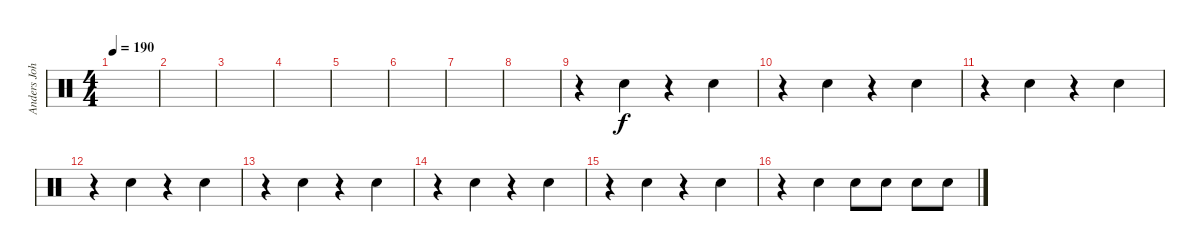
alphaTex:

\track ("Anders Johansson Drums" "Anders Joh") {instrument percussion}
\staff {score}
\articulation defaults
\ts (4 4)
\tempo 190
\clef neutral
\ks c
|
|
|
|
|
|
|
|
r.4 "Snare (hit) 2".4 r.4 "Snare (hit) 2".4 |
r.4 "Snare (hit) 2".4 r.4 "Snare (hit) 2".4 |
r.4 "Snare (hit) 2".4 r.4 "Snare (hit) 2".4 |
r.4 "Snare (hit) 2".4 r.4 "Snare (hit) 2".4 |
r.4 "Snare (hit) 2".4 r.4 "Snare (hit) 2".4 |
r.4 "Snare (hit) 2".4 r.4 "Snare (hit) 2".4 |
r.4 "Snare (hit) 2".4 r.4 "Snare (hit) 2".4 |
r.4 "Snare (hit) 2".4 "Snare (hit) 2".8 "Snare (hit) 2".8 "Snare (hit) 2".8 "Snare (hit) 2".8
